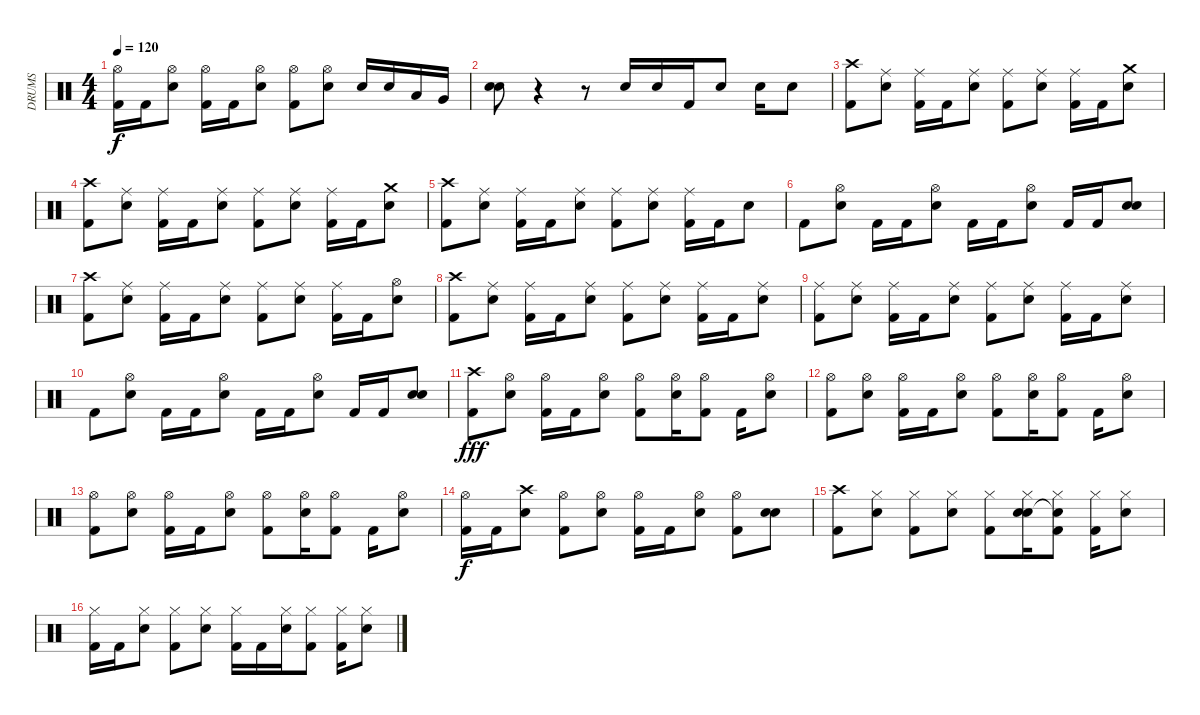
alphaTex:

\track ("DRUMS" "DRUMS") {instrument percussion}
\staff {score}
\articulation defaults
\ts (4 4)
\tempo 120
\clef neutral
\ks c
("Hi-Hat (open)" "Kick (hit) 2").16{dy f} "Kick (hit) 2".16 ("Hi-Hat (open)" "Snare (hit) 2").8 ("Hi-Hat (open)" "Kick (hit) 2").16 "Kick (hit) 2".16 ("Hi-Hat (open)" "Snare (hit) 2").8 ("Hi-Hat (open)" "Kick (hit) 2").8 ("Hi-Hat (open)" "Snare (hit) 2").8 "Snare (hit) 2".16 "Snare (hit) 2".16 "Low Tom (hit)".16 "Very Low Tom (hit)".16 |
("Snare (hit) 2" "Snare (hit) 2").8 r.4 r.8 "Snare (hit) 2".16 "Snare (hit) 2".16 "Kick (hit) 2".16 "Snare (hit) 2".8 "Snare (hit) 2".16 "Snare (hit) 2".8 |
("Crash high (hit)" "Kick (hit) 2").8 ("Ride (middle)" "Snare (hit) 2").8 ("Ride (middle)" "Kick (hit) 2").16 "Kick (hit) 2".16 ("Ride (middle)" "Snare (hit) 2").8 ("Ride (middle)" "Kick (hit) 2").8 ("Ride (middle)" "Snare (hit) 2").8 ("Ride (middle)" "Kick (hit) 2").16 "Kick (hit) 2".16 ("Crash medium (hit)" "Snare (hit) 2").8 |
("Crash high (hit)" "Kick (hit) 2").8 ("Ride (middle)" "Snare (hit) 2").8 ("Ride (middle)" "Kick (hit) 2").16 "Kick (hit) 2".16 ("Ride (middle)" "Snare (hit) 2").8 ("Ride (middle)" "Kick (hit) 2").8 ("Ride (middle)" "Snare (hit) 2").8 ("Ride (middle)" "Kick (hit) 2").16 "Kick (hit) 2".16 ("Crash medium (hit)" "Snare (hit) 2").8 |
("Crash high (hit)" "Kick (hit) 2").8 ("Ride (middle)" "Snare (hit) 2").8 ("Ride (middle)" "Kick (hit) 2").16 "Kick (hit) 2".16 ("Ride (middle)" "Snare (hit) 2").8 ("Ride (middle)" "Kick (hit) 2").8 ("Ride (middle)" "Snare (hit) 2").8 ("Ride (middle)" "Kick (hit) 2").16 "Kick (hit) 2".16 "Snare (hit) 2".8 |
"Kick (hit) 2".8 ("Hi-Hat (open)" "Snare (hit) 2").8 "Kick (hit) 2".16 "Kick (hit) 2".16 ("Hi-Hat (open)" "Snare (hit) 2").8 "Kick (hit) 2".16 "Kick (hit) 2".16 ("Hi-Hat (open)" "Snare (hit) 2").8 "Kick (hit) 2".16 "Kick (hit) 2".16 ("Snare (hit) 2" "Snare (hit) 2").8 |
("Crash high (hit)" "Kick (hit) 2").8 ("Ride (middle)" "Snare (hit) 2").8 ("Ride (middle)" "Kick (hit) 2").16 "Kick (hit) 2".16 ("Ride (middle)" "Snare (hit) 2").8 ("Ride (middle)" "Kick (hit) 2").8 ("Ride (middle)" "Snare (hit) 2").8 ("Ride (middle)" "Kick (hit) 2").16 "Kick (hit) 2".16 ("Hi-Hat (open)" "Snare (hit) 2").8 |
("Crash high (hit)" "Kick (hit) 2").8 ("Ride (middle)" "Snare (hit) 2").8 ("Ride (middle)" "Kick (hit) 2").16 "Kick (hit) 2".16 ("Ride (middle)" "Snare (hit) 2").8 ("Ride (middle)" "Kick (hit) 2").8 ("Ride (middle)" "Snare (hit) 2").8 ("Ride (middle)" "Kick (hit) 2").16 "Kick (hit) 2".16 ("Ride (middle)" "Snare (hit) 2").8 |
("Ride (middle)" "Kick (hit) 2").8 ("Ride (middle)" "Snare (hit) 2").8 ("Ride (middle)" "Kick (hit) 2").16 "Kick (hit) 2".16 ("Ride (middle)" "Snare (hit) 2").8 ("Ride (middle)" "Kick (hit) 2").8 ("Ride (middle)" "Snare (hit) 2").8 ("Ride (middle)" "Kick (hit) 2").16 "Kick (hit) 2".16 ("Ride (middle)" "Snare (hit) 2").8 |
"Kick (hit) 2".8 ("Hi-Hat (open)" "Snare (hit) 2").8 "Kick (hit) 2".16 "Kick (hit) 2".16 ("Hi-Hat (open)" "Snare (hit) 2").8 "Kick (hit) 2".16 "Kick (hit) 2".16 ("Hi-Hat (open)" "Snare (hit) 2").8 "Kick (hit) 2".16 "Kick (hit) 2".16 ("Snare (hit) 2" "Snare (hit) 2").8 |
("Crash high (hit)" "Kick (hit) 2").8{dy fff} ("Hi-Hat (open)" "Snare (hit) 2").8 ("Hi-Hat (open)" "Kick (hit) 2").16 "Kick (hit) 2".16 ("Hi-Hat (open)" "Snare (hit) 2").8 ("Hi-Hat (open)" "Kick (hit) 2").8 ("Hi-Hat (open)" "Snare (hit) 2").16 ("Hi-Hat (open)" "Kick (hit) 2").8 "Kick (hit) 2".16 ("Hi-Hat (open)" "Snare (hit) 2").8 |
("Hi-Hat (open)" "Kick (hit) 2").8 ("Hi-Hat (open)" "Snare (hit) 2").8 ("Hi-Hat (open)" "Kick (hit) 2").16 "Kick (hit) 2".16 ("Hi-Hat (open)" "Snare (hit) 2").8 ("Hi-Hat (open)" "Kick (hit) 2").8 ("Hi-Hat (open)" "Snare (hit) 2").16 ("Hi-Hat (open)" "Kick (hit) 2").8 "Kick (hit) 2".16 ("Hi-Hat (open)" "Snare (hit) 2").8 |
("Hi-Hat (open)" "Kick (hit) 2").8 ("Hi-Hat (open)" "Snare (hit) 2").8 ("Hi-Hat (open)" "Kick (hit) 2").16 "Kick (hit) 2".16 ("Hi-Hat (open)" "Snare (hit) 2").8 ("Hi-Hat (open)" "Kick (hit) 2").8 ("Hi-Hat (open)" "Snare (hit) 2").16 ("Hi-Hat (open)" "Kick (hit) 2").8 "Kick (hit) 2".16 ("Hi-Hat (open)" "Snare (hit) 2").8 |
("Hi-Hat (open)" "Kick (hit) 2").16{dy f} "Kick (hit) 2".16 ("Crash high (hit)" "Snare (hit) 2").8 ("Hi-Hat (open)" "Kick (hit) 2").8 ("Hi-Hat (open)" "Snare (hit) 2").8 ("Hi-Hat (open)" "Kick (hit) 2").16 "Kick (hit) 2".16 ("Hi-Hat (open)" "Snare (hit) 2").8 ("Hi-Hat (open)" "Kick (hit) 2").8 ("Snare (hit) 2" "Snare (hit) 2").8 |
("Crash high (hit)" "Kick (hit) 2").8 ("Hi-Hat (closed)" "Snare (hit) 2").8 ("Hi-Hat (closed)" "Kick (hit) 2").8 ("Hi-Hat (closed)" "Snare (hit) 2").8 ("Hi-Hat (closed)" "Kick (hit) 2").8 ("Hi-Hat (closed)" "Snare (hit) 2" "Snare (hit)").16 ("Hi-Hat (closed)" "Snare (hit)"{t} "Kick (hit) 2").8 ("Hi-Hat (closed)" "Kick (hit) 2").16 ("Hi-Hat (closed)" "Snare (hit) 2").8 |
("Hi-Hat (closed)" "Kick (hit) 2").16 "Kick (hit) 2".16 ("Hi-Hat (closed)" "Snare (hit) 2").8 ("Hi-Hat (closed)" "Kick (hit) 2").8 ("Hi-Hat (closed)" "Snare (hit) 2").8 ("Hi-Hat (closed)" "Kick (hit) 2").16 "Kick (hit) 2".16 ("Hi-Hat (closed)" "Snare (hit) 2").16 ("Hi-Hat (closed)" "Kick (hit) 2").8 ("Hi-Hat (closed)" "Kick (hit) 2").16 ("Hi-Hat (closed)" "Snare (hit) 2").8
